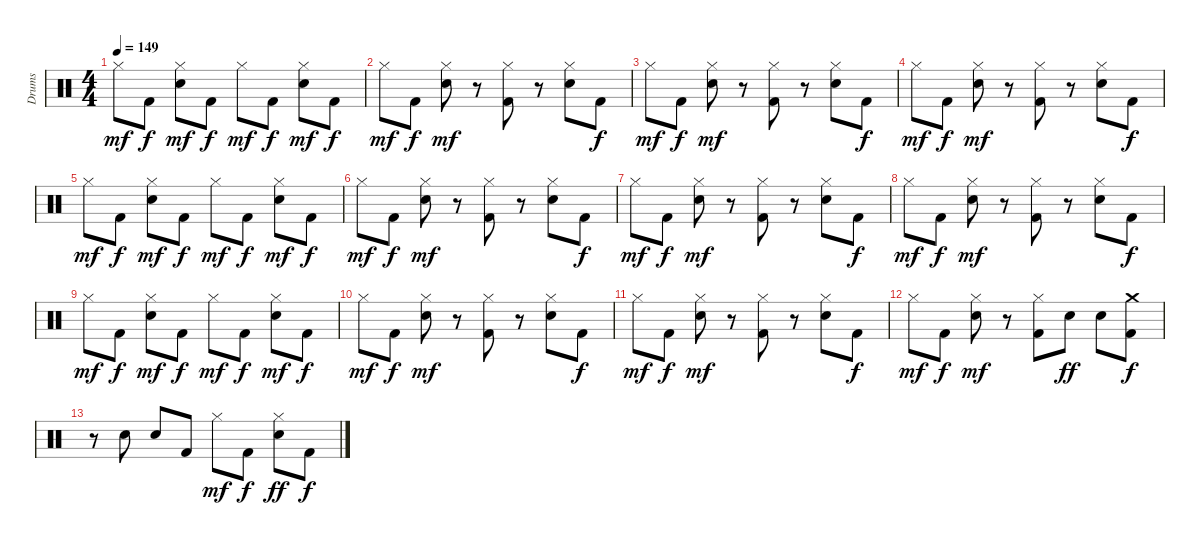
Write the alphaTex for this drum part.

\track ("Drums" "Drums") {instrument percussion}
\staff {score}
\articulation defaults
\ts (4 4)
\tempo 149
\clef neutral
\ks c "Hi-Hat (closed)".8{dy mf} "Kick (hit) 2".8{dy f}
("Hi-Hat (closed)" "Snare (hit) 2").8{dy mf} "Kick (hit) 2".8{dy f} "Hi-Hat (closed)".8{dy mf} "Kick (hit) 2".8{dy f} ("Hi-Hat (closed)" "Snare (hit) 2").8{dy mf} "Kick (hit) 2".8{dy f} |
"Hi-Hat (closed)".8{dy mf} "Kick (hit) 2".8{dy f} ("Hi-Hat (closed)" "Snare (hit) 2").8{dy mf} r.8 ("Hi-Hat (closed)" "Kick (hit) 2").8 r.8 ("Hi-Hat (closed)" "Snare (hit) 2").8 "Kick (hit) 2".8{dy f} |
"Hi-Hat (closed)".8{dy mf} "Kick (hit) 2".8{dy f} ("Hi-Hat (closed)" "Snare (hit) 2").8{dy mf} r.8 ("Hi-Hat (closed)" "Kick (hit) 2").8 r.8 ("Hi-Hat (closed)" "Snare (hit) 2").8 "Kick (hit) 2".8{dy f} |
"Hi-Hat (closed)".8{dy mf} "Kick (hit) 2".8{dy f} ("Hi-Hat (closed)" "Snare (hit) 2").8{dy mf} r.8 ("Hi-Hat (closed)" "Kick (hit) 2").8 r.8 ("Hi-Hat (closed)" "Snare (hit) 2").8 "Kick (hit) 2".8{dy f} |
"Hi-Hat (closed)".8{dy mf} "Kick (hit) 2".8{dy f} ("Hi-Hat (closed)" "Snare (hit) 2").8{dy mf} "Kick (hit) 2".8{dy f} "Hi-Hat (closed)".8{dy mf} "Kick (hit) 2".8{dy f} ("Hi-Hat (closed)" "Snare (hit) 2").8{dy mf} "Kick (hit) 2".8{dy f} |
"Hi-Hat (closed)".8{dy mf} "Kick (hit) 2".8{dy f} ("Hi-Hat (closed)" "Snare (hit) 2").8{dy mf} r.8 ("Hi-Hat (closed)" "Kick (hit) 2").8 r.8 ("Hi-Hat (closed)" "Snare (hit) 2").8 "Kick (hit) 2".8{dy f} |
"Hi-Hat (closed)".8{dy mf} "Kick (hit) 2".8{dy f} ("Hi-Hat (closed)" "Snare (hit) 2").8{dy mf} r.8 ("Hi-Hat (closed)" "Kick (hit) 2").8 r.8 ("Hi-Hat (closed)" "Snare (hit) 2").8 "Kick (hit) 2".8{dy f} |
"Hi-Hat (closed)".8{dy mf} "Kick (hit) 2".8{dy f} ("Hi-Hat (closed)" "Snare (hit) 2").8{dy mf} r.8 ("Hi-Hat (closed)" "Kick (hit) 2").8 r.8 ("Hi-Hat (closed)" "Snare (hit) 2").8 "Kick (hit) 2".8{dy f} |
"Hi-Hat (closed)".8{dy mf} "Kick (hit) 2".8{dy f} ("Hi-Hat (closed)" "Snare (hit) 2").8{dy mf} "Kick (hit) 2".8{dy f} "Hi-Hat (closed)".8{dy mf} "Kick (hit) 2".8{dy f} ("Hi-Hat (closed)" "Snare (hit) 2").8{dy mf} "Kick (hit) 2".8{dy f} |
"Hi-Hat (closed)".8{dy mf volume 0} "Kick (hit) 2".8{dy f} ("Hi-Hat (closed)" "Snare (hit) 2").8{dy mf} r.8 ("Hi-Hat (closed)" "Kick (hit) 2").8 r.8 ("Hi-Hat (closed)" "Snare (hit) 2").8 "Kick (hit) 2".8{dy f} |
"Hi-Hat (closed)".8{dy mf} "Kick (hit) 2".8{dy f} ("Hi-Hat (closed)" "Snare (hit) 2").8{dy mf} r.8 ("Hi-Hat (closed)" "Kick (hit) 2").8 r.8 ("Hi-Hat (closed)" "Snare (hit) 2").8 "Kick (hit) 2".8{dy f} |
"Hi-Hat (closed)".8{dy mf} "Kick (hit) 2".8{dy f} ("Hi-Hat (closed)" "Snare (hit) 2").8{dy mf} r.8 ("Hi-Hat (closed)" "Kick (hit) 2").8 "Snare (hit) 2".8{dy ff} "Snare (hit) 2".8 ("Crash medium (hit)" "Kick (hit) 2").8{dy f} |
r.8 "Snare (hit) 2".8 "Snare (hit) 2".8 "Kick (hit) 2".8 "Hi-Hat (closed)".8{dy mf} "Kick (hit) 2".8{dy f} ("Hi-Hat (closed)" "Snare (hit) 2").8{dy ff} "Kick (hit) 2".8{dy f}
